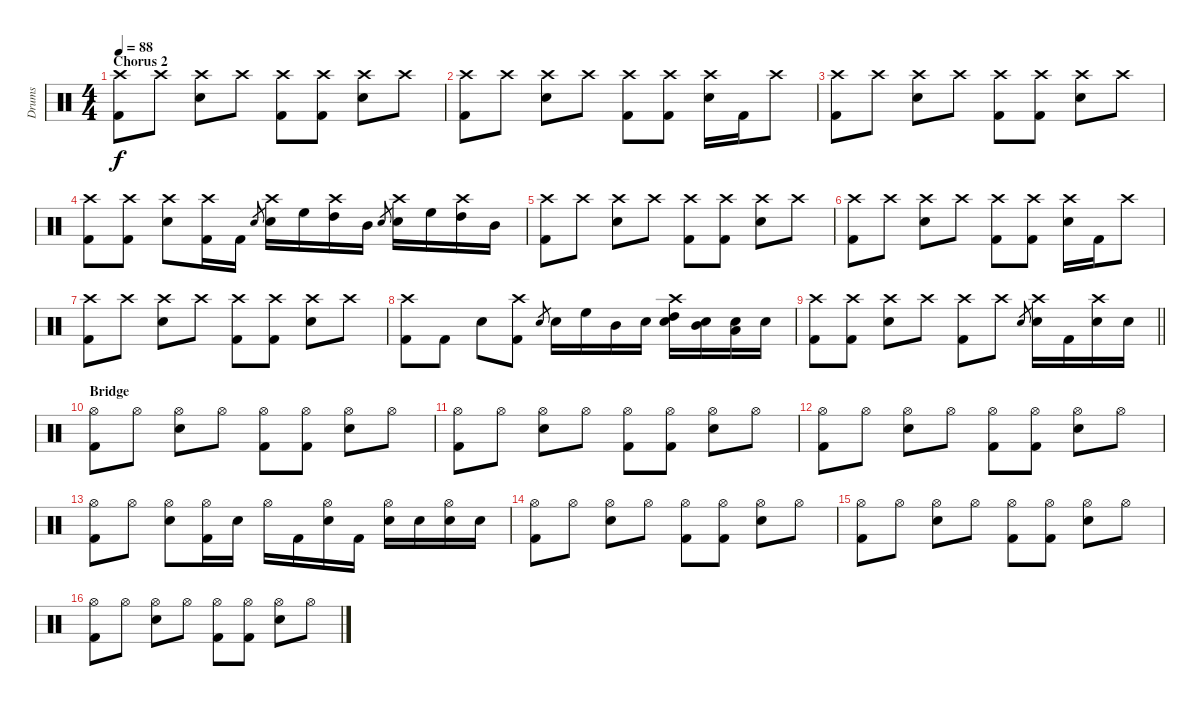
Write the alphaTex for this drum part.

\track ("Drums" "Drums") {instrument percussion}
\staff {score}
\articulation defaults
\ts (4 4)
\section ("" "Chorus 2")
\tempo 88
\clef neutral
\ks c
("Crash high (hit)" "Kick (hit) 2").8{dy f} "Crash high (hit)".8 ("Crash high (hit)" "Electric Snare (hit)").8 "Crash high (hit)".8 ("Crash high (hit)" "Kick (hit) 2").8 ("Crash high (hit)" "Kick (hit) 2").8 ("Crash high (hit)" "Electric Snare (hit)").8 "Crash high (hit)".8 |
("Crash high (hit)" "Kick (hit) 2").8 "Crash high (hit)".8 ("Crash high (hit)" "Electric Snare (hit)").8 "Crash high (hit)".8 ("Crash high (hit)" "Kick (hit) 2").8 ("Crash high (hit)" "Kick (hit) 2").8 ("Crash high (hit)" "Electric Snare (hit)").16 "Kick (hit) 2".16 "Crash high (hit)".8 |
("Crash high (hit)" "Kick (hit) 2").8 "Crash high (hit)".8 ("Crash high (hit)" "Electric Snare (hit)").8 "Crash high (hit)".8 ("Crash high (hit)" "Kick (hit) 2").8 ("Crash high (hit)" "Kick (hit) 2").8 ("Crash high (hit)" "Electric Snare (hit)").8 "Crash high (hit)".8 |
("Crash high (hit)" "Kick (hit) 2").8 ("Crash high (hit)" "Kick (hit) 2").8 ("Crash high (hit)" "Electric Snare (hit)").8 ("Crash high (hit)" "Kick (hit) 2").16 "Kick (hit) 2".16 "Electric Snare (hit)".8{gr} ("Crash high (hit)" "Electric Snare (hit)").16 "High Floor Tom (hit)".16 ("Crash high (hit)" "High Tom (hit)").16 "Mid Tom (hit)".16 "Electric Snare (hit)".8{gr} ("Crash high (hit)" "Electric Snare (hit)").16 "High Floor Tom (hit)".16 ("Crash high (hit)" "High Tom (hit)").16 "Mid Tom (hit)".16 |
("Crash high (hit)" "Kick (hit) 2").8 "Crash high (hit)".8 ("Crash high (hit)" "Electric Snare (hit)").8 "Crash high (hit)".8 ("Crash high (hit)" "Kick (hit) 2").8 ("Crash high (hit)" "Kick (hit) 2").8 ("Crash high (hit)" "Electric Snare (hit)").8 "Crash high (hit)".8 |
("Crash high (hit)" "Kick (hit) 2").8 "Crash high (hit)".8 ("Crash high (hit)" "Electric Snare (hit)").8 "Crash high (hit)".8 ("Crash high (hit)" "Kick (hit) 2").8 ("Crash high (hit)" "Kick (hit) 2").8 ("Crash high (hit)" "Electric Snare (hit)").16 "Kick (hit) 2".16 "Crash high (hit)".8 |
("Crash high (hit)" "Kick (hit) 2").8 "Crash high (hit)".8 ("Crash high (hit)" "Electric Snare (hit)").8 "Crash high (hit)".8 ("Crash high (hit)" "Kick (hit) 2").8 ("Crash high (hit)" "Kick (hit) 2").8 ("Crash high (hit)" "Electric Snare (hit)").8 "Crash high (hit)".8 |
("Crash high (hit)" "Kick (hit) 2").8 "Kick (hit) 2".8 "Electric Snare (hit)".8 ("Crash high (hit)" "Kick (hit) 2").8 "Electric Snare (hit)".8{gr} "Electric Snare (hit)".16 "High Floor Tom (hit)".16 "Mid Tom (hit)".16 "Electric Snare (hit)".16 ("Crash high (hit)" "High Tom (hit)" "Electric Snare (hit)").16 ("Mid Tom (hit)" "Electric Snare (hit)").16 ("Low Tom (hit)" "Electric Snare (hit)").16 "Electric Snare (hit)".16 |
\barLineRight lightlight
("Crash high (hit)" "Kick (hit) 2").8 ("Crash high (hit)" "Kick (hit) 2").8 ("Crash high (hit)" "Electric Snare (hit)").8 "Crash high (hit)".8 ("Crash high (hit)" "Kick (hit) 2").8 "Crash high (hit)".8 "Electric Snare (hit)".8{gr} ("Crash high (hit)" "Electric Snare (hit)").16 "Kick (hit) 2".16 ("Crash high (hit)" "Electric Snare (hit)").16 "Electric Snare (hit)".16 |
\section ("" "Bridge")
("Hi-Hat (open)" "Kick (hit) 2").8 "Hi-Hat (open)".8 ("Hi-Hat (open)" "Electric Snare (hit)").8 "Hi-Hat (open)".8 ("Hi-Hat (open)" "Kick (hit) 2").8 ("Hi-Hat (open)" "Kick (hit) 2").8 ("Hi-Hat (open)" "Electric Snare (hit)").8 "Hi-Hat (open)".8 |
("Hi-Hat (open)" "Kick (hit) 2").8 "Hi-Hat (open)".8 ("Hi-Hat (open)" "Electric Snare (hit)").8 "Hi-Hat (open)".8 ("Hi-Hat (open)" "Kick (hit) 2").8 ("Hi-Hat (open)" "Kick (hit) 2").8 ("Hi-Hat (open)" "Electric Snare (hit)").8 "Hi-Hat (open)".8 |
("Hi-Hat (open)" "Kick (hit) 2").8 "Hi-Hat (open)".8 ("Hi-Hat (open)" "Electric Snare (hit)").8 "Hi-Hat (open)".8 ("Hi-Hat (open)" "Kick (hit) 2").8 ("Hi-Hat (open)" "Kick (hit) 2").8 ("Hi-Hat (open)" "Electric Snare (hit)").8 "Hi-Hat (open)".8 |
("Hi-Hat (open)" "Kick (hit) 2").8 "Hi-Hat (open)".8 ("Hi-Hat (open)" "Electric Snare (hit)").8 ("Hi-Hat (open)" "Kick (hit) 2").16 "Electric Snare (hit)".16 "Hi-Hat (open)".16 "Kick (hit) 2".16 ("Hi-Hat (open)" "Electric Snare (hit)").16 "Kick (hit) 2".16 ("Hi-Hat (open)" "Electric Snare (hit)").16 "Electric Snare (hit)".16 ("Hi-Hat (open)" "Electric Snare (hit)").16 "Electric Snare (hit)".16 |
("Hi-Hat (open)" "Kick (hit) 2").8 "Hi-Hat (open)".8 ("Hi-Hat (open)" "Electric Snare (hit)").8 "Hi-Hat (open)".8 ("Hi-Hat (open)" "Kick (hit) 2").8 ("Hi-Hat (open)" "Kick (hit) 2").8 ("Hi-Hat (open)" "Electric Snare (hit)").8 "Hi-Hat (open)".8 |
("Hi-Hat (open)" "Kick (hit) 2").8 "Hi-Hat (open)".8 ("Hi-Hat (open)" "Electric Snare (hit)").8 "Hi-Hat (open)".8 ("Hi-Hat (open)" "Kick (hit) 2").8 ("Hi-Hat (open)" "Kick (hit) 2").8 ("Hi-Hat (open)" "Electric Snare (hit)").8 "Hi-Hat (open)".8 |
("Hi-Hat (open)" "Kick (hit) 2").8 "Hi-Hat (open)".8 ("Hi-Hat (open)" "Electric Snare (hit)").8 "Hi-Hat (open)".8 ("Hi-Hat (open)" "Kick (hit) 2").8 ("Hi-Hat (open)" "Kick (hit) 2").8 ("Hi-Hat (open)" "Electric Snare (hit)").8 "Hi-Hat (open)".8
